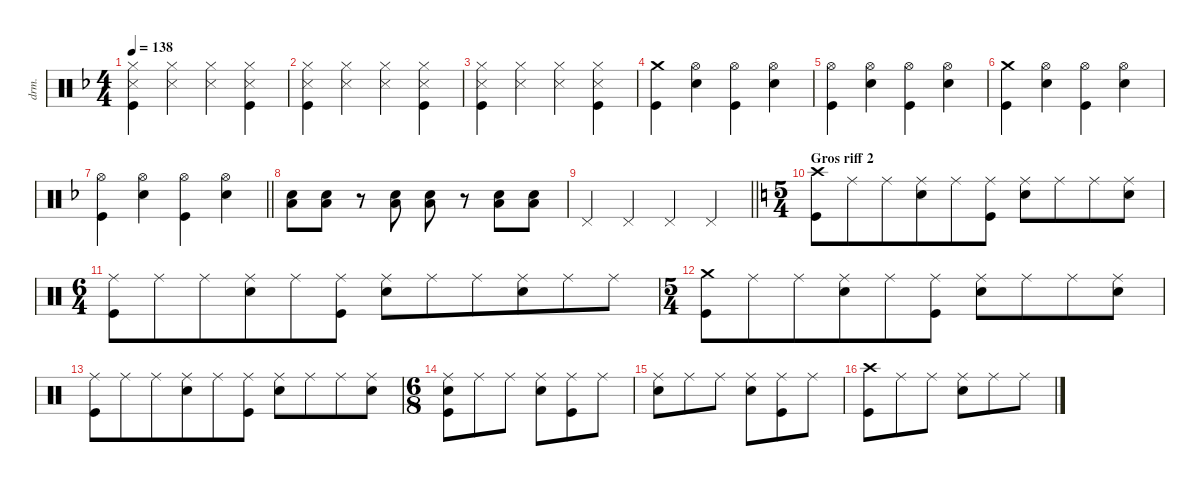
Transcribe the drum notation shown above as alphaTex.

\defaultSystemsLayout 4
\hideDynamics
\bracketExtendMode nobrackets
\track ("Percussions" "drm.") {instrument percussion}
\staff {score}
\articulation defaults
\ts (4 4)
\tempo 138
\clef neutral
\ks dminor
("Hi-Hat (closed)"{acc forcenatural} "Snare (side stick) 3"{acc forcenatural} "Kick (hit)"{acc forcenatural}).4{dy f} ("Hi-Hat (closed)"{acc forcenatural} "Snare (side stick) 3"{acc forcenatural}).4 ("Hi-Hat (closed)"{acc forcenatural} "Snare (side stick) 3"{acc forcenatural}).4 ("Hi-Hat (closed)"{acc forcenatural} "Snare (side stick) 3"{acc forcenatural} "Kick (hit)"{acc forcenatural}).4 |
("Hi-Hat (closed)"{acc forcenatural} "Snare (side stick) 3"{acc forcenatural} "Kick (hit)"{acc forcenatural}).4 ("Hi-Hat (closed)"{acc forcenatural} "Snare (side stick) 3"{acc forcenatural}).4 ("Hi-Hat (closed)"{acc forcenatural} "Snare (side stick) 3"{acc forcenatural}).4 ("Hi-Hat (closed)"{acc forcenatural} "Snare (side stick) 3"{acc forcenatural} "Kick (hit)"{acc forcenatural}).4 |
("Hi-Hat (closed)"{acc forcenatural} "Snare (side stick) 3"{acc forcenatural} "Kick (hit)"{acc forcenatural}).4 ("Hi-Hat (closed)"{acc forcenatural} "Snare (side stick) 3"{acc forcenatural}).4 ("Hi-Hat (closed)"{acc forcenatural} "Snare (side stick) 3"{acc forcenatural}).4 ("Hi-Hat (closed)"{acc forcenatural} "Snare (side stick) 3"{acc forcenatural} "Kick (hit)"{acc forcenatural}).4 |
("Crash medium (hit)"{acc forcenatural} "Kick (hit)"{acc forcenatural}).4 ("Hi-Hat (open)"{acc forcenatural} "Snare (hit) 2"{acc forcenatural}).4 ("Hi-Hat (open)"{acc forcenatural} "Kick (hit)"{acc forcenatural}).4 ("Hi-Hat (open)"{acc forcenatural} "Snare (hit) 2"{acc forcenatural}).4 |
("Hi-Hat (open)"{acc forcenatural} "Kick (hit)"{acc forcenatural}).4 ("Hi-Hat (open)"{acc forcenatural} "Snare (hit) 2"{acc forcenatural}).4 ("Hi-Hat (open)"{acc forcenatural} "Kick (hit)"{acc forcenatural}).4 ("Hi-Hat (open)"{acc forcenatural} "Snare (hit) 2"{acc forcenatural}).4 |
("Crash medium (hit)"{acc forcenatural} "Kick (hit)"{acc forcenatural}).4 ("Hi-Hat (open)"{acc forcenatural} "Snare (hit) 2"{acc forcenatural}).4 ("Hi-Hat (open)"{acc forcenatural} "Kick (hit)"{acc forcenatural}).4 ("Hi-Hat (open)"{acc forcenatural} "Snare (hit) 2"{acc forcenatural}).4 |
\barLineRight lightlight
("Hi-Hat (open)"{acc forcenatural} "Kick (hit)"{acc forcenatural}).4 ("Hi-Hat (open)"{acc forcenatural} "Snare (hit) 2"{acc forcenatural}).4 ("Hi-Hat (open)"{acc forcenatural} "Kick (hit)"{acc forcenatural}).4 ("Hi-Hat (open)"{acc forcenatural} "Snare (hit) 2"{acc forcenatural}).4 |
("Snare (hit) 2"{acc forcenatural} "Low Tom (hit)"{acc forcenatural}).8 ("Snare (hit) 2"{acc forcenatural} "Low Tom (hit)"{acc forcenatural}).8 r.8 ("Snare (hit) 2"{acc forcenatural} "Low Tom (hit)"{acc forcenatural}).8 ("Snare (hit) 2"{acc forcenatural} "Low Tom (hit)"{acc forcenatural}).8 r.8 ("Snare (hit) 2"{acc forcenatural} "Low Tom (hit)"{acc forcenatural}).8 ("Snare (hit) 2"{acc forcenatural} "Low Tom (hit)"{acc forcenatural}).8 |
\barLineRight lightlight "Pedal Hi-Hat (hit)"{acc forcenatural}.4 "Pedal Hi-Hat (hit)"{acc forcenatural}.4 "Pedal Hi-Hat (hit)"{acc forcenatural}.4 "Pedal Hi-Hat (hit)"{acc forcenatural}.4
|
\ts (5 4)
\beaming (8 6 4)
\section ("" "Gros riff 2")
\ks aminor
("Crash high (hit)" "Kick (hit)").8 "Ride (middle)".8 "Ride (middle)".8 ("Ride (middle)" "Snare (hit) 2").8 "Ride (middle)".8 ("Ride (middle)" "Kick (hit)").8 ("Ride (middle)" "Snare (hit) 2").8 "Ride (middle)".8 "Ride (middle)".8 ("Ride (middle)" "Snare (hit) 2").8 |
\ts (6 4)
\beaming (8 6 6)
("Ride (middle)" "Kick (hit)").8 "Ride (middle)".8 "Ride (middle)".8 ("Ride (middle)" "Snare (hit) 2").8 "Ride (middle)".8 ("Ride (middle)" "Kick (hit)").8 ("Ride (middle)" "Snare (hit) 2").8 "Ride (middle)".8 "Ride (middle)".8 ("Ride (middle)" "Snare (hit) 2").8 "Ride (middle)".8 "Ride (middle)".8 |
\ts (5 4)
\beaming (8 6 4)
("Crash medium (hit)" "Kick (hit)").8 "Ride (middle)".8 "Ride (middle)".8 ("Ride (middle)" "Snare (hit) 2").8 "Ride (middle)".8 ("Ride (middle)" "Kick (hit)").8 ("Ride (middle)" "Snare (hit) 2").8 "Ride (middle)".8 "Ride (middle)".8 ("Ride (middle)" "Snare (hit) 2").8 |
("Ride (middle)" "Kick (hit)").8 "Ride (middle)".8 "Ride (middle)".8 ("Ride (middle)" "Snare (hit) 2").8 "Ride (middle)".8 ("Ride (middle)" "Kick (hit)").8 ("Ride (middle)" "Snare (hit) 2").8 "Ride (middle)".8 "Ride (middle)".8 ("Ride (middle)" "Snare (hit) 2").8 |
\ts (6 8)
\beaming (8 3 3)
("Ride (middle)" "Snare (hit) 2" "Kick (hit)").8 "Ride (middle)".8 "Ride (middle)".8 ("Ride (middle)" "Snare (hit) 2").8 ("Ride (middle)" "Kick (hit)").8 "Ride (middle)".8 |
("Ride (middle)" "Snare (hit) 2").8 "Ride (middle)".8 "Ride (middle)".8 ("Ride (middle)" "Snare (hit) 2").8 ("Ride (middle)" "Kick (hit)").8 "Ride (middle)".8 |
("Crash high (hit)" "Kick (hit)").8 "Ride (middle)".8 "Ride (middle)".8 ("Ride (middle)" "Snare (hit) 2").8 "Ride (middle)".8 "Ride (middle)".8
